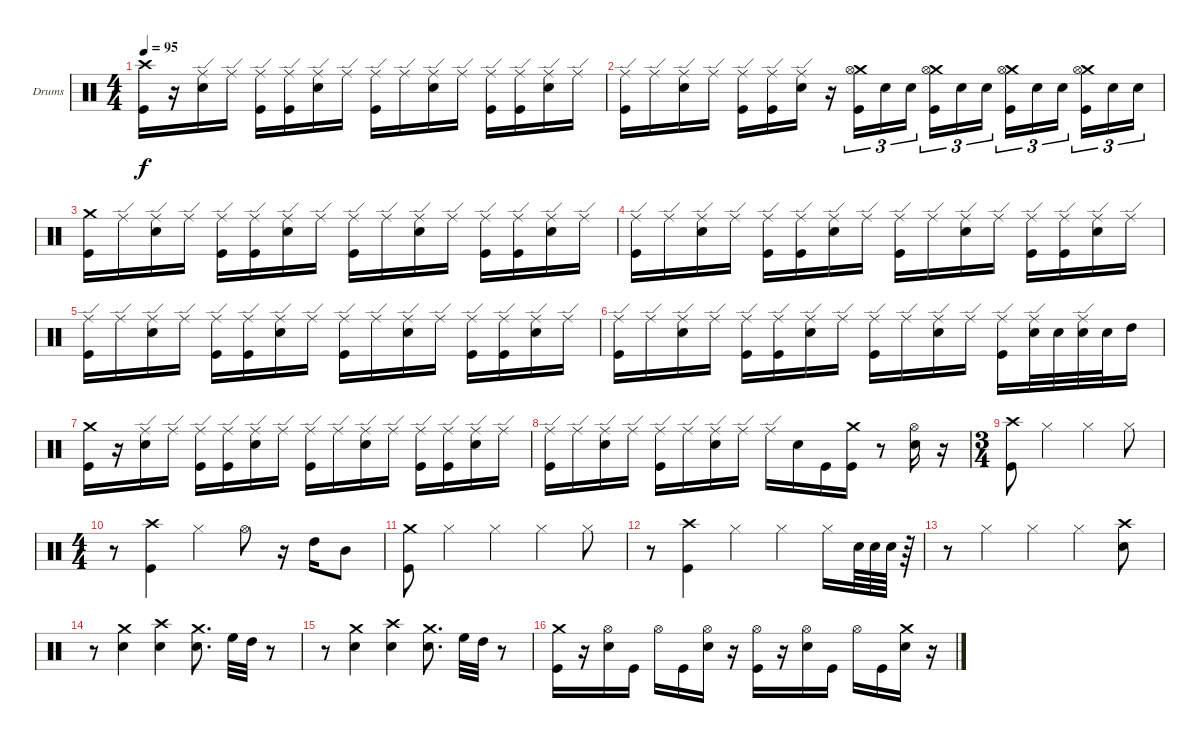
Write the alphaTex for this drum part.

\bracketExtendMode groupsimilarinstruments
\firstSystemTrackNameOrientation horizontal
\otherSystemsTrackNameOrientation horizontal
\track ("Drumkit" "Drums") {instrument percussion}
\staff {score}
\articulation defaults
\ts (4 4)
\tempo 95
\clef neutral
\ks c
("Crash high (hit)" "Kick (hit)").16{dy f} r.16 ("Ride (edge)" "Snare (hit) 2").16 "Ride (edge)".16 ("Ride (edge)" "Kick (hit)").16 ("Ride (edge)" "Kick (hit)").16 ("Ride (edge)" "Snare (hit) 2").16 "Ride (edge)".16 ("Ride (edge)" "Kick (hit)").16 "Ride (edge)".16 ("Ride (edge)" "Snare (hit) 2").16 "Ride (edge)".16 ("Ride (edge)" "Kick (hit)").16 ("Ride (edge)" "Kick (hit)").16 ("Ride (edge)" "Snare (hit) 2").16 "Ride (edge)".16 |
("Ride (edge)" "Kick (hit)").16 "Ride (edge)".16 ("Ride (edge)" "Snare (hit) 2").16 "Ride (edge)".16 ("Ride (edge)" "Kick (hit)").16 ("Ride (edge)" "Kick (hit)").16 ("Ride (edge)" "Snare (hit) 2").16 r.16 ("Crash medium (hit)" "Hi-Hat (open)" "Kick (hit)").16{tu (3 2)} "Snare (hit) 2".16{tu (3 2)} "Snare (hit) 2".16{tu (3 2)} ("Crash medium (hit)" "Hi-Hat (open)" "Kick (hit)").16{tu (3 2)} "Snare (hit) 2".16{tu (3 2)} "Snare (hit) 2".16{tu (3 2)} ("Crash medium (hit)" "Hi-Hat (open)" "Kick (hit)").16{tu (3 2)} "Snare (hit) 2".16{tu (3 2)} "Snare (hit) 2".16{tu (3 2)} ("Crash medium (hit)" "Hi-Hat (open)" "Kick (hit)").16{tu (3 2)} "Snare (hit) 2".16{tu (3 2)} "Snare (hit) 2".16{tu (3 2)} |
("Crash medium (hit)" "Kick (hit)").16 "Ride (edge)".16 ("Ride (edge)" "Snare (hit) 2").16 "Ride (edge)".16 ("Ride (edge)" "Kick (hit)").16 ("Ride (edge)" "Kick (hit)").16 ("Ride (edge)" "Snare (hit) 2").16 "Ride (edge)".16 ("Ride (edge)" "Kick (hit)").16 "Ride (edge)".16 ("Ride (edge)" "Snare (hit) 2").16 "Ride (edge)".16 ("Ride (edge)" "Kick (hit)").16 ("Ride (edge)" "Kick (hit)").16 ("Ride (edge)" "Snare (hit) 2").16 "Ride (edge)".16 |
("Ride (edge)" "Kick (hit)").16 "Ride (edge)".16 ("Ride (edge)" "Snare (hit) 2").16 "Ride (edge)".16 ("Ride (edge)" "Kick (hit)").16 ("Ride (edge)" "Kick (hit)").16 ("Ride (edge)" "Snare (hit) 2").16 "Ride (edge)".16 ("Ride (edge)" "Kick (hit)").16 "Ride (edge)".16 ("Ride (edge)" "Snare (hit) 2").16 "Ride (edge)".16 ("Ride (edge)" "Kick (hit)").16 ("Ride (edge)" "Kick (hit)").16 ("Ride (edge)" "Snare (hit) 2").16 "Ride (edge)".16 |
("Ride (edge)" "Kick (hit)").16 "Ride (edge)".16 ("Ride (edge)" "Snare (hit) 2").16 "Ride (edge)".16 ("Ride (edge)" "Kick (hit)").16 ("Ride (edge)" "Kick (hit)").16 ("Ride (edge)" "Snare (hit) 2").16 "Ride (edge)".16 ("Ride (edge)" "Kick (hit)").16 "Ride (edge)".16 ("Ride (edge)" "Snare (hit) 2").16 "Ride (edge)".16 ("Ride (edge)" "Kick (hit)").16 ("Ride (edge)" "Kick (hit)").16 ("Ride (edge)" "Snare (hit) 2").16 "Ride (edge)".16 |
("Ride (edge)" "Kick (hit)").16 "Ride (edge)".16 ("Ride (edge)" "Snare (hit) 2").16 "Ride (edge)".16 ("Ride (edge)" "Kick (hit)").16 ("Ride (edge)" "Kick (hit)").16 ("Ride (edge)" "Snare (hit) 2").16 "Ride (edge)".16 ("Ride (edge)" "Kick (hit)").16 "Ride (edge)".16 ("Ride (edge)" "Snare (hit) 2").16 "Ride (edge)".16 ("Ride (edge)" "Kick (hit)").16 ("Ride (edge)" "Snare (hit) 2").32 "Snare (hit) 2".32 ("Ride (edge)" "Snare (hit) 2").32 "Snare (hit) 2".32 "High Tom (hit)".16 |
("Crash medium (hit)" "Kick (hit)").16 r.16 ("Ride (edge)" "Snare (hit) 2").16 "Ride (edge)".16 ("Ride (edge)" "Kick (hit)").16 ("Ride (edge)" "Kick (hit)").16 ("Ride (edge)" "Snare (hit) 2").16 "Ride (edge)".16 ("Ride (edge)" "Kick (hit)").16 "Ride (edge)".16 ("Ride (edge)" "Snare (hit) 2").16 "Ride (edge)".16 ("Ride (edge)" "Kick (hit)").16 ("Ride (edge)" "Kick (hit)").16 ("Ride (edge)" "Snare (hit) 2").16 "Ride (edge)".16 |
("Ride (edge)" "Kick (hit)").16 "Ride (edge)".16 ("Ride (edge)" "Snare (hit) 2").16 "Ride (edge)".16 ("Ride (edge)" "Kick (hit)").16 "Ride (edge)".16 ("Ride (edge)" "Snare (hit) 2").16 "Ride (edge)".16 "Ride (edge)".16 "Snare (hit) 2".16 "Kick (hit)".16 ("Crash medium (hit)" "Kick (hit)").16 r.8 ("Hi-Hat (open)" "Snare (hit) 2").16 r.16 |
\ts (3 4)
("Crash high (hit)" "Kick (hit)").8 "Hi-Hat (closed)".4 "Hi-Hat (closed)".4 "Hi-Hat (closed)".8 |
\ts (4 4)
r.8 ("Crash high (hit)" "Kick (hit)").4 "Hi-Hat (closed)".4 "Hi-Hat (open)".8 r.16 "High Tom (hit)".16 "Mid Tom (hit)".8 |
("Crash medium (hit)" "Kick (hit)").8 "Hi-Hat (closed)".4 "Hi-Hat (closed)".4 "Hi-Hat (closed)".4 "Hi-Hat (closed)".8 |
r.8 ("Crash high (hit)" "Kick (hit)").4 "Hi-Hat (closed)".4 "Hi-Hat (closed)".4 "Hi-Hat (closed)".16 "Snare (hit) 2".64 "Snare (hit) 2".64 "Snare (hit) 2".64 r.64 |
r.8 "Hi-Hat (closed)".4 "Hi-Hat (closed)".4 "Hi-Hat (closed)".4 ("Crash high (hit)" "Snare (hit) 2").8 |
r.8 ("Crash medium (hit)" "Snare (hit) 2").4 ("Crash high (hit)" "Snare (hit) 2").4 ("Crash medium (hit)" "Snare (hit) 2").8{d} "High Floor Tom (hit)".32 "High Tom (hit)".32 r.8 |
r.8 ("Crash medium (hit)" "Snare (hit) 2").4 ("Crash high (hit)" "Snare (hit) 2").4 ("Crash medium (hit)" "Snare (hit) 2").8{d} "High Floor Tom (hit)".32 "High Tom (hit)".32 r.8 |
("Crash medium (hit)" "Kick (hit)").16 r.16 ("Hi-Hat (open)" "Snare (hit) 2").16 "Kick (hit)".16 "Hi-Hat (open)".16 "Kick (hit)".16 ("Hi-Hat (open)" "Snare (hit) 2").16 r.16 ("Hi-Hat (open)" "Kick (hit)").16 r.16 ("Hi-Hat (open)" "Snare (hit) 2").16 "Kick (hit)".16 "Hi-Hat (open)".16 "Kick (hit)".16 ("Crash medium (hit)" "Snare (hit) 2").16 r.16
